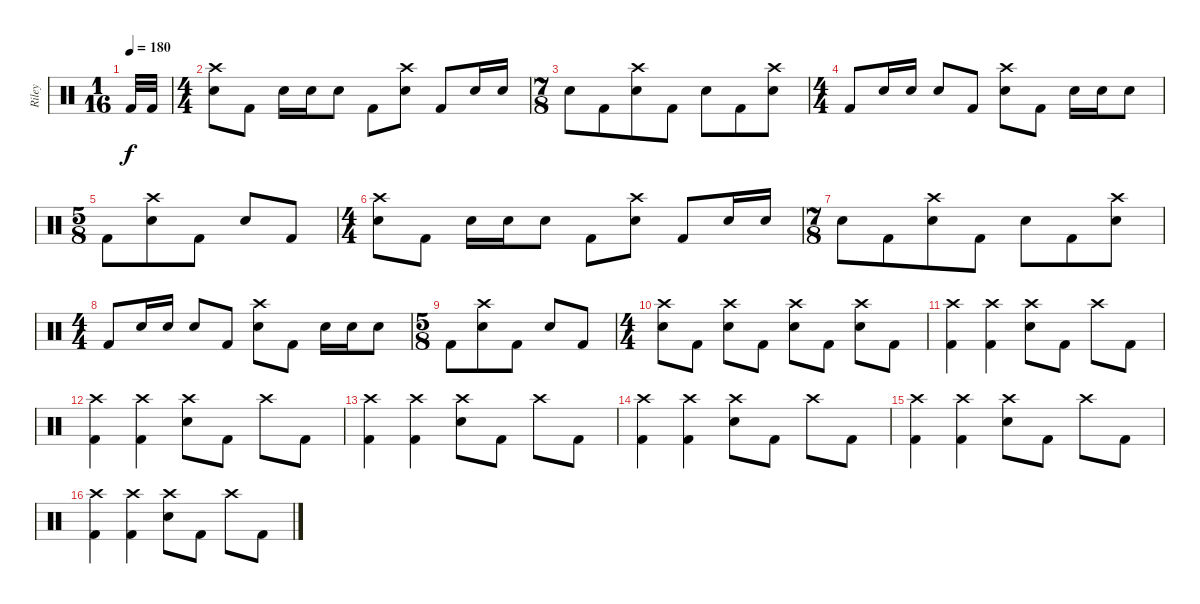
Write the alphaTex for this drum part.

\track ("Riley" "Riley") {instrument percussion}
\staff {score}
\articulation defaults
\ts (1 16)
\tempo 180
\clef neutral
\ks c "Kick (hit) 2".32{dy f} "Kick (hit) 2".32
|
\ts (4 4)
("Crash high (hit)" "Electric Snare (hit)").8 "Kick (hit) 2".8 "Electric Snare (hit)".16 "Electric Snare (hit)".16 "Electric Snare (hit)".8 "Kick (hit) 2".8 ("Crash high (hit)" "Electric Snare (hit)").8 "Kick (hit) 2".8 "Electric Snare (hit)".16 "Electric Snare (hit)".16 |
\ts (7 8)
"Electric Snare (hit)".8 "Kick (hit) 2".8 ("Crash high (hit)" "Electric Snare (hit)").8 "Kick (hit) 2".8 "Electric Snare (hit)".8 "Kick (hit) 2".8 ("Crash high (hit)" "Electric Snare (hit)").8 |
\ts (4 4)
"Kick (hit) 2".8 "Electric Snare (hit)".16 "Electric Snare (hit)".16 "Electric Snare (hit)".8 "Kick (hit) 2".8 ("Crash high (hit)" "Electric Snare (hit)").8 "Kick (hit) 2".8 "Electric Snare (hit)".16 "Electric Snare (hit)".16 "Electric Snare (hit)".8 |
\ts (5 8)
"Kick (hit) 2".8 ("Crash high (hit)" "Electric Snare (hit)").8 "Kick (hit) 2".8 "Electric Snare (hit)".8 "Kick (hit) 2".8 |
\ts (4 4)
("Crash high (hit)" "Electric Snare (hit)").8 "Kick (hit) 2".8 "Electric Snare (hit)".16 "Electric Snare (hit)".16 "Electric Snare (hit)".8 "Kick (hit) 2".8 ("Crash high (hit)" "Electric Snare (hit)").8 "Kick (hit) 2".8 "Electric Snare (hit)".16 "Electric Snare (hit)".16 |
\ts (7 8)
"Electric Snare (hit)".8 "Kick (hit) 2".8 ("Crash high (hit)" "Electric Snare (hit)").8 "Kick (hit) 2".8 "Electric Snare (hit)".8 "Kick (hit) 2".8 ("Crash high (hit)" "Electric Snare (hit)").8 |
\ts (4 4)
"Kick (hit) 2".8 "Electric Snare (hit)".16 "Electric Snare (hit)".16 "Electric Snare (hit)".8 "Kick (hit) 2".8 ("Crash high (hit)" "Electric Snare (hit)").8 "Kick (hit) 2".8 "Electric Snare (hit)".16 "Electric Snare (hit)".16 "Electric Snare (hit)".8 |
\ts (5 8)
"Kick (hit) 2".8 ("Crash high (hit)" "Electric Snare (hit)").8 "Kick (hit) 2".8 "Electric Snare (hit)".8 "Kick (hit) 2".8 |
\ts (4 4)
("Crash high (hit)" "Electric Snare (hit)").8 "Kick (hit) 2".8 ("Crash high (hit)" "Electric Snare (hit)").8 "Kick (hit) 2".8 ("Crash high (hit)" "Electric Snare (hit)").8 "Kick (hit) 2".8 ("Crash high (hit)" "Electric Snare (hit)").8 "Kick (hit) 2".8 |
("Crash high (hit)" "Kick (hit) 2").4 ("Crash high (hit)" "Kick (hit) 2").4 ("Crash high (hit)" "Electric Snare (hit)").8 "Kick (hit) 2".8 "Crash high (hit)".8 "Kick (hit) 2".8 |
("Crash high (hit)" "Kick (hit) 2").4 ("Crash high (hit)" "Kick (hit) 2").4 ("Crash high (hit)" "Electric Snare (hit)").8 "Kick (hit) 2".8 "Crash high (hit)".8 "Kick (hit) 2".8 |
("Crash high (hit)" "Kick (hit) 2").4 ("Crash high (hit)" "Kick (hit) 2").4 ("Crash high (hit)" "Electric Snare (hit)").8 "Kick (hit) 2".8 "Crash high (hit)".8 "Kick (hit) 2".8 |
("Crash high (hit)" "Kick (hit) 2").4 ("Crash high (hit)" "Kick (hit) 2").4 ("Crash high (hit)" "Electric Snare (hit)").8 "Kick (hit) 2".8 "Crash high (hit)".8 "Kick (hit) 2".8 |
("Crash high (hit)" "Kick (hit) 2").4 ("Crash high (hit)" "Kick (hit) 2").4 ("Crash high (hit)" "Electric Snare (hit)").8 "Kick (hit) 2".8 "Crash high (hit)".8 "Kick (hit) 2".8 |
("Crash high (hit)" "Kick (hit) 2").4 ("Crash high (hit)" "Kick (hit) 2").4 ("Crash high (hit)" "Electric Snare (hit)").8 "Kick (hit) 2".8 "Crash high (hit)".8 "Kick (hit) 2".8
